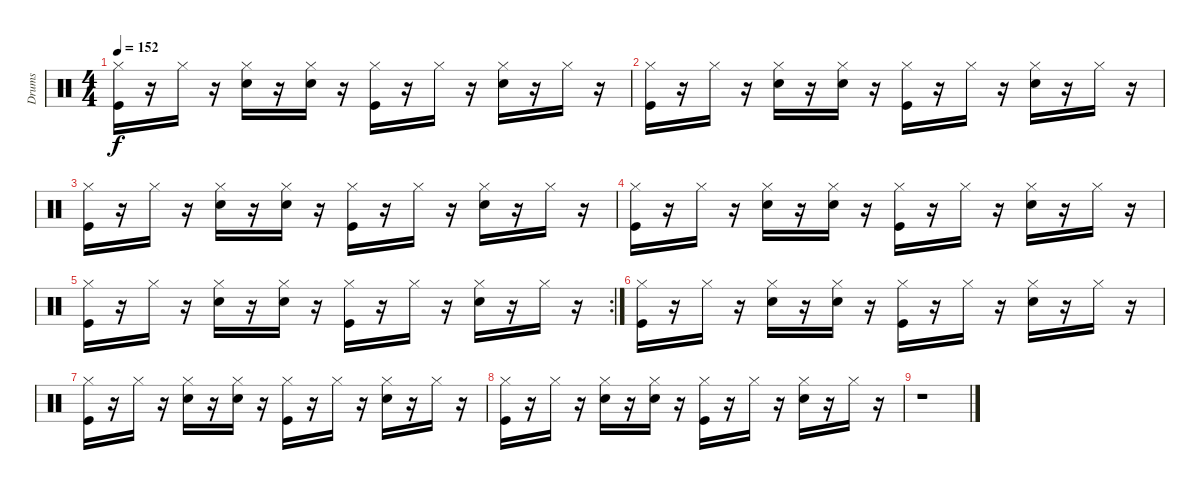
\track ("Drums               " "Drums     ") {instrument percussion}
\staff {score}
\articulation defaults
\ts (4 4)
\tempo 152
\clef neutral
\ks c
("Kick (hit)" "Hi-Hat (closed)").16{dy f} r.16 "Hi-Hat (closed)".16 r.16 ("Electric Snare (hit)" "Hi-Hat (closed)").16 r.16 ("Electric Snare (hit)" "Hi-Hat (closed)").16 r.16 ("Kick (hit)" "Hi-Hat (closed)").16 r.16 "Hi-Hat (closed)".16 r.16 ("Hi-Hat (closed)" "Electric Snare (hit)").16 r.16 "Hi-Hat (closed)".16 r.16 |
("Kick (hit)" "Hi-Hat (closed)").16 r.16 "Hi-Hat (closed)".16 r.16 ("Electric Snare (hit)" "Hi-Hat (closed)").16 r.16 ("Electric Snare (hit)" "Hi-Hat (closed)").16 r.16 ("Kick (hit)" "Hi-Hat (closed)").16 r.16 "Hi-Hat (closed)".16 r.16 ("Electric Snare (hit)" "Hi-Hat (closed)").16 r.16 "Hi-Hat (closed)".16 r.16 |
("Kick (hit)" "Hi-Hat (closed)").16 r.16 "Hi-Hat (closed)".16 r.16 ("Electric Snare (hit)" "Hi-Hat (closed)").16 r.16 ("Electric Snare (hit)" "Hi-Hat (closed)").16 r.16 ("Kick (hit)" "Hi-Hat (closed)").16 r.16 "Hi-Hat (closed)".16 r.16 ("Electric Snare (hit)" "Hi-Hat (closed)").16 r.16 "Hi-Hat (closed)".16 r.16 |
("Kick (hit)" "Hi-Hat (closed)").16 r.16 "Hi-Hat (closed)".16 r.16 ("Electric Snare (hit)" "Hi-Hat (closed)").16 r.16 ("Electric Snare (hit)" "Hi-Hat (closed)").16 r.16 ("Hi-Hat (closed)" "Kick (hit)").16 r.16 "Hi-Hat (closed)".16 r.16 ("Electric Snare (hit)" "Hi-Hat (closed)").16 r.16 "Hi-Hat (closed)".16 r.16 |
\rc 2
("Kick (hit)" "Hi-Hat (closed)").16 r.16 "Hi-Hat (closed)".16 r.16 ("Electric Snare (hit)" "Hi-Hat (closed)").16 r.16 ("Electric Snare (hit)" "Hi-Hat (closed)").16 r.16 ("Kick (hit)" "Hi-Hat (closed)").16 r.16 "Hi-Hat (closed)".16 r.16 ("Electric Snare (hit)" "Hi-Hat (closed)").16 r.16 "Hi-Hat (closed)".16 r.16 |
("Kick (hit)" "Hi-Hat (closed)").16 r.16 "Hi-Hat (closed)".16 r.16 ("Electric Snare (hit)" "Hi-Hat (closed)").16 r.16 ("Electric Snare (hit)" "Hi-Hat (closed)").16 r.16 ("Kick (hit)" "Hi-Hat (closed)").16 r.16 "Hi-Hat (closed)".16 r.16 ("Electric Snare (hit)" "Hi-Hat (closed)").16 r.16 "Hi-Hat (closed)".16 r.16 |
("Kick (hit)" "Hi-Hat (closed)").16 r.16 "Hi-Hat (closed)".16 r.16 ("Hi-Hat (closed)" "Electric Snare (hit)").16 r.16 ("Electric Snare (hit)" "Hi-Hat (closed)").16 r.16 ("Kick (hit)" "Hi-Hat (closed)").16 r.16 "Hi-Hat (closed)".16 r.16 ("Electric Snare (hit)" "Hi-Hat (closed)").16 r.16 "Hi-Hat (closed)".16 r.16 |
("Kick (hit)" "Hi-Hat (closed)").16 r.16 "Hi-Hat (closed)".16 r.16 ("Electric Snare (hit)" "Hi-Hat (closed)").16 r.16 ("Electric Snare (hit)" "Hi-Hat (closed)").16 r.16 ("Kick (hit)" "Hi-Hat (closed)").16 r.16 "Hi-Hat (closed)".16 r.16 ("Electric Snare (hit)" "Hi-Hat (closed)").16 r.16 "Hi-Hat (closed)".16 r.16 |
r.1
